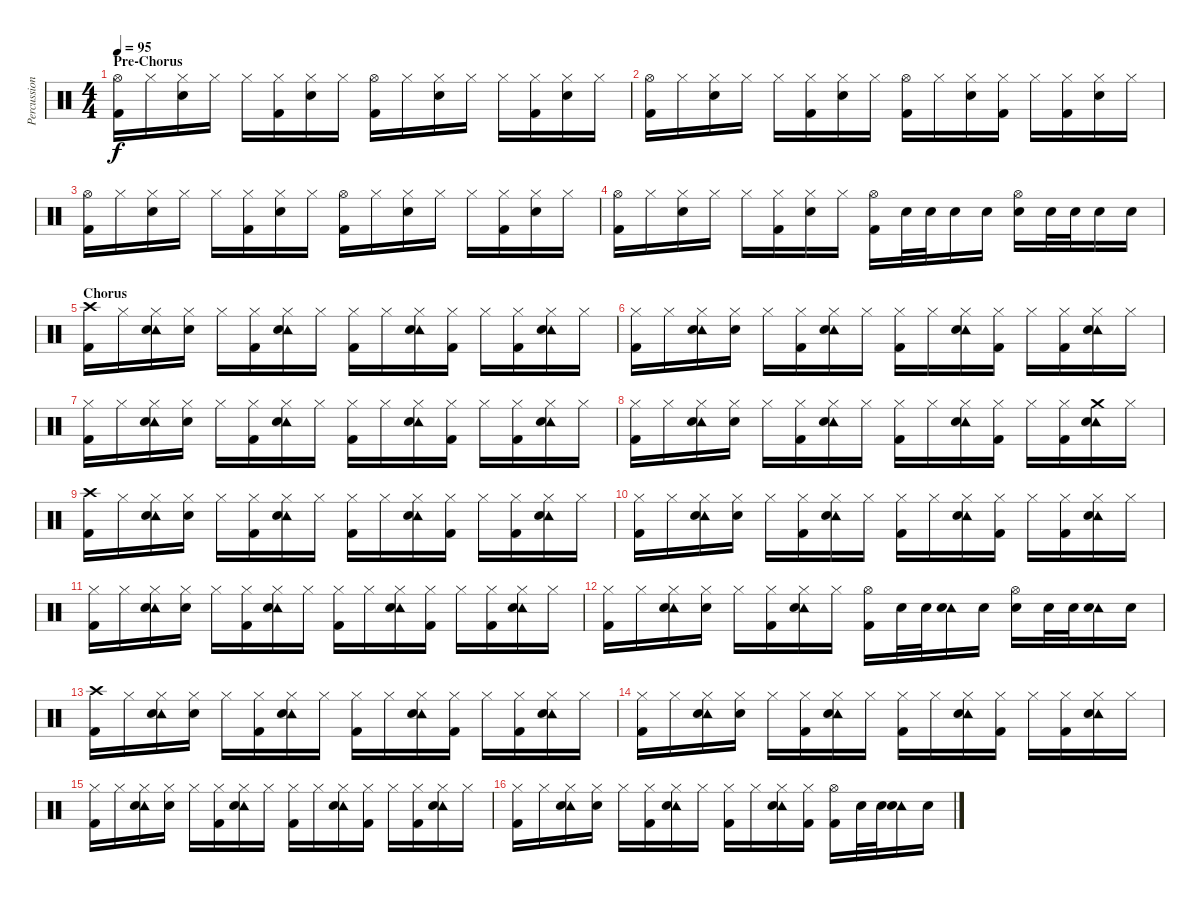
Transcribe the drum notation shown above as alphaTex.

\track ("Percussion" "Percussion") {instrument percussion}
\staff {score}
\articulation defaults
\ts (4 4)
\section ("" "Pre-Chorus")
\tempo 95
\clef neutral
\ks c
("Hi-Hat (open)" "Kick (hit) 2").16{dy f} "Hi-Hat (closed)".16 ("Hi-Hat (closed)" "Electric Snare (hit)").16 "Hi-Hat (closed)".16 "Hi-Hat (closed)".16 ("Hi-Hat (closed)" "Kick (hit) 2").16 ("Hi-Hat (closed)" "Electric Snare (hit)").16 "Hi-Hat (closed)".16 ("Hi-Hat (open)" "Kick (hit) 2").16 "Hi-Hat (closed)".16 ("Hi-Hat (closed)" "Electric Snare (hit)").16 "Hi-Hat (closed)".16 "Hi-Hat (closed)".16 ("Hi-Hat (closed)" "Kick (hit) 2").16 ("Hi-Hat (closed)" "Electric Snare (hit)").16 "Hi-Hat (closed)".16 |
("Hi-Hat (open)" "Kick (hit) 2").16 "Hi-Hat (closed)".16 ("Hi-Hat (closed)" "Electric Snare (hit)").16 "Hi-Hat (closed)".16 "Hi-Hat (closed)".16 ("Hi-Hat (closed)" "Kick (hit) 2").16 ("Hi-Hat (closed)" "Electric Snare (hit)").16 "Hi-Hat (closed)".16 ("Hi-Hat (open)" "Kick (hit) 2").16 "Hi-Hat (closed)".16 ("Hi-Hat (closed)" "Electric Snare (hit)").16 ("Hi-Hat (closed)" "Kick (hit) 2").16 "Hi-Hat (closed)".16 ("Hi-Hat (closed)" "Kick (hit) 2").16 ("Hi-Hat (closed)" "Electric Snare (hit)").16 "Hi-Hat (closed)".16 |
("Hi-Hat (open)" "Kick (hit) 2").16 "Hi-Hat (closed)".16 ("Hi-Hat (closed)" "Electric Snare (hit)").16 "Hi-Hat (closed)".16 "Hi-Hat (closed)".16 ("Hi-Hat (closed)" "Kick (hit) 2").16 ("Hi-Hat (closed)" "Electric Snare (hit)").16 "Hi-Hat (closed)".16 ("Hi-Hat (open)" "Kick (hit) 2").16 "Hi-Hat (closed)".16 ("Hi-Hat (closed)" "Electric Snare (hit)").16 "Hi-Hat (closed)".16 "Hi-Hat (closed)".16 ("Hi-Hat (closed)" "Kick (hit) 2").16 ("Hi-Hat (closed)" "Electric Snare (hit)").16 "Hi-Hat (closed)".16 |
("Hi-Hat (open)" "Kick (hit) 2").16 "Hi-Hat (closed)".16 ("Hi-Hat (closed)" "Electric Snare (hit)").16 "Hi-Hat (closed)".16 "Hi-Hat (closed)".16 ("Hi-Hat (closed)" "Kick (hit) 2").16 ("Hi-Hat (closed)" "Electric Snare (hit)").16 "Hi-Hat (closed)".16 ("Hi-Hat (open)" "Kick (hit) 2").16 "Electric Snare (hit)".32 "Electric Snare (hit)".32 "Electric Snare (hit)".16 "Electric Snare (hit)".16 ("Hi-Hat (open)" "Electric Snare (hit)").16 "Electric Snare (hit)".32 "Electric Snare (hit)".32 "Electric Snare (hit)".16 "Electric Snare (hit)".16 |
\section ("" "Chorus")
("Crash high (hit)" "Kick (hit) 2").16 "Hi-Hat (closed)".16 ("Tambourine (hit)" "Hi-Hat (closed)" "Electric Snare (hit)").16 ("Hi-Hat (closed)" "Electric Snare (hit)").16 "Hi-Hat (closed)".16 ("Hi-Hat (closed)" "Kick (hit) 2").16 ("Tambourine (hit)" "Hi-Hat (closed)" "Electric Snare (hit)").16 "Hi-Hat (closed)".16 ("Hi-Hat (closed)" "Kick (hit) 2").16 "Hi-Hat (closed)".16 ("Tambourine (hit)" "Hi-Hat (closed)" "Electric Snare (hit)").16 ("Hi-Hat (closed)" "Kick (hit) 2").16 "Hi-Hat (closed)".16 ("Hi-Hat (closed)" "Kick (hit) 2").16 ("Tambourine (hit)" "Hi-Hat (closed)" "Electric Snare (hit)").16 "Hi-Hat (closed)".16 |
("Hi-Hat (closed)" "Kick (hit) 2").16 "Hi-Hat (closed)".16 ("Tambourine (hit)" "Hi-Hat (closed)" "Electric Snare (hit)").16 ("Hi-Hat (closed)" "Electric Snare (hit)").16 "Hi-Hat (closed)".16 ("Hi-Hat (closed)" "Kick (hit) 2").16 ("Tambourine (hit)" "Hi-Hat (closed)" "Electric Snare (hit)").16 "Hi-Hat (closed)".16 ("Hi-Hat (closed)" "Kick (hit) 2").16 "Hi-Hat (closed)".16 ("Tambourine (hit)" "Hi-Hat (closed)" "Electric Snare (hit)").16 ("Hi-Hat (closed)" "Kick (hit) 2").16 "Hi-Hat (closed)".16 ("Hi-Hat (closed)" "Kick (hit) 2").16 ("Tambourine (hit)" "Hi-Hat (closed)" "Electric Snare (hit)").16 "Hi-Hat (closed)".16 |
("Hi-Hat (closed)" "Kick (hit) 2").16 "Hi-Hat (closed)".16 ("Tambourine (hit)" "Hi-Hat (closed)" "Electric Snare (hit)").16 ("Hi-Hat (closed)" "Electric Snare (hit)").16 "Hi-Hat (closed)".16 ("Hi-Hat (closed)" "Kick (hit) 2").16 ("Tambourine (hit)" "Hi-Hat (closed)" "Electric Snare (hit)").16 "Hi-Hat (closed)".16 ("Hi-Hat (closed)" "Kick (hit) 2").16 "Hi-Hat (closed)".16 ("Tambourine (hit)" "Hi-Hat (closed)" "Electric Snare (hit)").16 ("Hi-Hat (closed)" "Kick (hit) 2").16 "Hi-Hat (closed)".16 ("Hi-Hat (closed)" "Kick (hit) 2").16 ("Tambourine (hit)" "Hi-Hat (closed)" "Electric Snare (hit)").16 "Hi-Hat (closed)".16 |
("Hi-Hat (closed)" "Kick (hit) 2").16 "Hi-Hat (closed)".16 ("Tambourine (hit)" "Hi-Hat (closed)" "Electric Snare (hit)").16 ("Hi-Hat (closed)" "Electric Snare (hit)").16 "Hi-Hat (closed)".16 ("Hi-Hat (closed)" "Kick (hit) 2").16 ("Tambourine (hit)" "Hi-Hat (closed)" "Electric Snare (hit)").16 "Hi-Hat (closed)".16 ("Hi-Hat (closed)" "Kick (hit) 2").16 "Hi-Hat (closed)".16 ("Tambourine (hit)" "Hi-Hat (closed)" "Electric Snare (hit)").16 ("Hi-Hat (closed)" "Kick (hit) 2").16 "Hi-Hat (closed)".16 ("Hi-Hat (closed)" "Kick (hit) 2").16 ("Tambourine (hit)" "Crash medium (hit)" "Electric Snare (hit)").16 "Hi-Hat (closed)".16 |
("Crash high (hit)" "Kick (hit) 2").16 "Hi-Hat (closed)".16 ("Tambourine (hit)" "Hi-Hat (closed)" "Electric Snare (hit)").16 ("Hi-Hat (closed)" "Electric Snare (hit)").16 "Hi-Hat (closed)".16 ("Hi-Hat (closed)" "Kick (hit) 2").16 ("Tambourine (hit)" "Hi-Hat (closed)" "Electric Snare (hit)").16 "Hi-Hat (closed)".16 ("Hi-Hat (closed)" "Kick (hit) 2").16 "Hi-Hat (closed)".16 ("Tambourine (hit)" "Hi-Hat (closed)" "Electric Snare (hit)").16 ("Hi-Hat (closed)" "Kick (hit) 2").16 "Hi-Hat (closed)".16 ("Hi-Hat (closed)" "Kick (hit) 2").16 ("Tambourine (hit)" "Hi-Hat (closed)" "Electric Snare (hit)").16 "Hi-Hat (closed)".16 |
("Hi-Hat (closed)" "Kick (hit) 2").16 "Hi-Hat (closed)".16 ("Tambourine (hit)" "Hi-Hat (closed)" "Electric Snare (hit)").16 ("Hi-Hat (closed)" "Electric Snare (hit)").16 "Hi-Hat (closed)".16 ("Hi-Hat (closed)" "Kick (hit) 2").16 ("Tambourine (hit)" "Hi-Hat (closed)" "Electric Snare (hit)").16 "Hi-Hat (closed)".16 ("Hi-Hat (closed)" "Kick (hit) 2").16 "Hi-Hat (closed)".16 ("Tambourine (hit)" "Hi-Hat (closed)" "Electric Snare (hit)").16 ("Hi-Hat (closed)" "Kick (hit) 2").16 "Hi-Hat (closed)".16 ("Hi-Hat (closed)" "Kick (hit) 2").16 ("Tambourine (hit)" "Hi-Hat (closed)" "Electric Snare (hit)").16 "Hi-Hat (closed)".16 |
("Hi-Hat (closed)" "Kick (hit) 2").16 "Hi-Hat (closed)".16 ("Tambourine (hit)" "Hi-Hat (closed)" "Electric Snare (hit)").16 ("Hi-Hat (closed)" "Electric Snare (hit)").16 "Hi-Hat (closed)".16 ("Hi-Hat (closed)" "Kick (hit) 2").16 ("Tambourine (hit)" "Hi-Hat (closed)" "Electric Snare (hit)").16 "Hi-Hat (closed)".16 ("Hi-Hat (closed)" "Kick (hit) 2").16 "Hi-Hat (closed)".16 ("Tambourine (hit)" "Hi-Hat (closed)" "Electric Snare (hit)").16 ("Hi-Hat (closed)" "Kick (hit) 2").16 "Hi-Hat (closed)".16 ("Hi-Hat (closed)" "Kick (hit) 2").16 ("Tambourine (hit)" "Hi-Hat (closed)" "Electric Snare (hit)").16 "Hi-Hat (closed)".16 |
("Hi-Hat (closed)" "Kick (hit) 2").16 "Hi-Hat (closed)".16 ("Tambourine (hit)" "Hi-Hat (closed)" "Electric Snare (hit)").16 ("Hi-Hat (closed)" "Electric Snare (hit)").16 "Hi-Hat (closed)".16 ("Hi-Hat (closed)" "Kick (hit) 2").16 ("Tambourine (hit)" "Hi-Hat (closed)" "Electric Snare (hit)").16 "Hi-Hat (closed)".16 ("Hi-Hat (open)" "Kick (hit) 2").16 "Electric Snare (hit)".32 "Electric Snare (hit)".32 ("Tambourine (hit)" "Electric Snare (hit)").16 "Electric Snare (hit)".16 ("Hi-Hat (open)" "Electric Snare (hit)").16 "Electric Snare (hit)".32 "Electric Snare (hit)".32 ("Tambourine (hit)" "Electric Snare (hit)").16 "Electric Snare (hit)".16 |
("Crash high (hit)" "Kick (hit) 2").16 "Hi-Hat (closed)".16 ("Tambourine (hit)" "Hi-Hat (closed)" "Electric Snare (hit)").16 ("Hi-Hat (closed)" "Electric Snare (hit)").16 "Hi-Hat (closed)".16 ("Hi-Hat (closed)" "Kick (hit) 2").16 ("Tambourine (hit)" "Hi-Hat (closed)" "Electric Snare (hit)").16 "Hi-Hat (closed)".16 ("Hi-Hat (closed)" "Kick (hit) 2").16 "Hi-Hat (closed)".16 ("Tambourine (hit)" "Hi-Hat (closed)" "Electric Snare (hit)").16 ("Hi-Hat (closed)" "Kick (hit) 2").16 "Hi-Hat (closed)".16 ("Hi-Hat (closed)" "Kick (hit) 2").16 ("Tambourine (hit)" "Hi-Hat (closed)" "Electric Snare (hit)").16 "Hi-Hat (closed)".16 |
("Hi-Hat (closed)" "Kick (hit) 2").16 "Hi-Hat (closed)".16 ("Tambourine (hit)" "Hi-Hat (closed)" "Electric Snare (hit)").16 ("Hi-Hat (closed)" "Electric Snare (hit)").16 "Hi-Hat (closed)".16 ("Hi-Hat (closed)" "Kick (hit) 2").16 ("Tambourine (hit)" "Hi-Hat (closed)" "Electric Snare (hit)").16 "Hi-Hat (closed)".16 ("Hi-Hat (closed)" "Kick (hit) 2").16 "Hi-Hat (closed)".16 ("Tambourine (hit)" "Hi-Hat (closed)" "Electric Snare (hit)").16 ("Hi-Hat (closed)" "Kick (hit) 2").16 "Hi-Hat (closed)".16 ("Hi-Hat (closed)" "Kick (hit) 2").16 ("Tambourine (hit)" "Hi-Hat (closed)" "Electric Snare (hit)").16 "Hi-Hat (closed)".16 |
("Hi-Hat (closed)" "Kick (hit) 2").16 "Hi-Hat (closed)".16 ("Tambourine (hit)" "Hi-Hat (closed)" "Electric Snare (hit)").16 ("Hi-Hat (closed)" "Electric Snare (hit)").16 "Hi-Hat (closed)".16 ("Hi-Hat (closed)" "Kick (hit) 2").16 ("Tambourine (hit)" "Hi-Hat (closed)" "Electric Snare (hit)").16 "Hi-Hat (closed)".16 ("Hi-Hat (closed)" "Kick (hit) 2").16 "Hi-Hat (closed)".16 ("Tambourine (hit)" "Hi-Hat (closed)" "Electric Snare (hit)").16 ("Hi-Hat (closed)" "Kick (hit) 2").16 "Hi-Hat (closed)".16 ("Hi-Hat (closed)" "Kick (hit) 2").16 ("Tambourine (hit)" "Hi-Hat (closed)" "Electric Snare (hit)").16 "Hi-Hat (closed)".16 |
("Hi-Hat (closed)" "Kick (hit) 2").16 "Hi-Hat (closed)".16 ("Tambourine (hit)" "Hi-Hat (closed)" "Electric Snare (hit)").16 ("Hi-Hat (closed)" "Electric Snare (hit)").16 "Hi-Hat (closed)".16 ("Hi-Hat (closed)" "Kick (hit) 2").16 ("Tambourine (hit)" "Hi-Hat (closed)" "Electric Snare (hit)").16 "Hi-Hat (closed)".16 ("Hi-Hat (closed)" "Kick (hit) 2").16 "Hi-Hat (closed)".16 ("Tambourine (hit)" "Hi-Hat (closed)" "Electric Snare (hit)").16 ("Hi-Hat (closed)" "Kick (hit) 2").16 ("Hi-Hat (open)" "Kick (hit) 2").16 "Electric Snare (hit)".32 "Electric Snare (hit)".32 ("Tambourine (hit)" "Electric Snare (hit)").16 "Electric Snare (hit)".16
